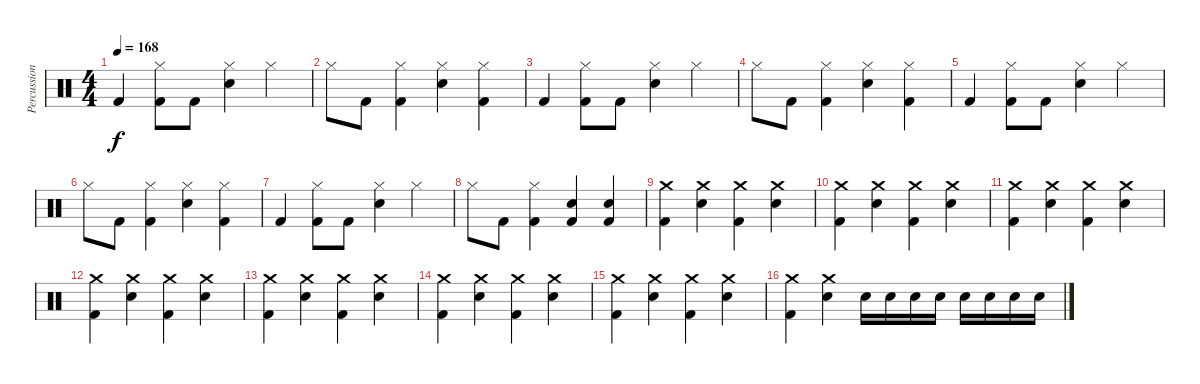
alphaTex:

\track ("Percussion" "Percussion") {instrument percussion}
\staff {score}
\articulation defaults
\ts (4 4)
\tempo 168
\clef neutral
\ks c "Kick (hit) 2".4{dy f}
("Hi-Hat (closed)" "Kick (hit) 2").8 "Kick (hit) 2".8 ("Hi-Hat (closed)" "Snare (hit) 2").4 "Hi-Hat (closed)".4 |
"Hi-Hat (closed)".8 "Kick (hit) 2".8 ("Hi-Hat (closed)" "Kick (hit) 2").4 ("Hi-Hat (closed)" "Snare (hit) 2").4 ("Hi-Hat (closed)" "Kick (hit) 2").4 |
"Kick (hit) 2".4 ("Hi-Hat (closed)" "Kick (hit) 2").8 "Kick (hit) 2".8 ("Hi-Hat (closed)" "Snare (hit) 2").4 "Hi-Hat (closed)".4 |
"Hi-Hat (closed)".8 "Kick (hit) 2".8 ("Hi-Hat (closed)" "Kick (hit) 2").4 ("Hi-Hat (closed)" "Snare (hit) 2").4 ("Hi-Hat (closed)" "Kick (hit) 2").4 |
"Kick (hit) 2".4 ("Hi-Hat (closed)" "Kick (hit) 2").8 "Kick (hit) 2".8 ("Hi-Hat (closed)" "Snare (hit) 2").4 "Hi-Hat (closed)".4 |
"Hi-Hat (closed)".8 "Kick (hit) 2".8 ("Hi-Hat (closed)" "Kick (hit) 2").4 ("Hi-Hat (closed)" "Snare (hit) 2").4 ("Hi-Hat (closed)" "Kick (hit) 2").4 |
"Kick (hit) 2".4 ("Hi-Hat (closed)" "Kick (hit) 2").8 "Kick (hit) 2".8 ("Hi-Hat (closed)" "Snare (hit) 2").4 "Hi-Hat (closed)".4 |
"Hi-Hat (closed)".8 "Kick (hit) 2".8 ("Hi-Hat (closed)" "Kick (hit) 2").4 ("Snare (hit) 2" "Kick (hit) 2").4 ("Snare (hit) 2" "Kick (hit) 2").4 |
("Crash medium (hit)" "Kick (hit) 2").4 ("Crash medium (hit)" "Snare (hit) 2").4 ("Crash medium (hit)" "Kick (hit) 2").4 ("Crash medium (hit)" "Snare (hit) 2").4 |
("Crash medium (hit)" "Kick (hit) 2").4 ("Crash medium (hit)" "Snare (hit) 2").4 ("Crash medium (hit)" "Kick (hit) 2").4 ("Crash medium (hit)" "Snare (hit) 2").4 |
("Crash medium (hit)" "Kick (hit) 2").4 ("Crash medium (hit)" "Snare (hit) 2").4 ("Crash medium (hit)" "Kick (hit) 2").4 ("Crash medium (hit)" "Snare (hit) 2").4 |
("Crash medium (hit)" "Kick (hit) 2").4 ("Crash medium (hit)" "Snare (hit) 2").4 ("Crash medium (hit)" "Kick (hit) 2").4 ("Crash medium (hit)" "Snare (hit) 2").4 |
("Crash medium (hit)" "Kick (hit) 2").4 ("Crash medium (hit)" "Snare (hit) 2").4 ("Crash medium (hit)" "Kick (hit) 2").4 ("Crash medium (hit)" "Snare (hit) 2").4 |
("Crash medium (hit)" "Kick (hit) 2").4 ("Crash medium (hit)" "Snare (hit) 2").4 ("Crash medium (hit)" "Kick (hit) 2").4 ("Crash medium (hit)" "Snare (hit) 2").4 |
("Crash medium (hit)" "Kick (hit) 2").4 ("Crash medium (hit)" "Snare (hit) 2").4 ("Crash medium (hit)" "Kick (hit) 2").4 ("Crash medium (hit)" "Snare (hit) 2").4 |
("Crash medium (hit)" "Kick (hit) 2").4 ("Crash medium (hit)" "Snare (hit) 2").4 "Snare (hit) 2".16 "Snare (hit) 2".16 "Snare (hit) 2".16 "Snare (hit) 2".16 "Snare (hit) 2".16 "Snare (hit) 2".16 "Snare (hit) 2".16 "Snare (hit) 2".16
